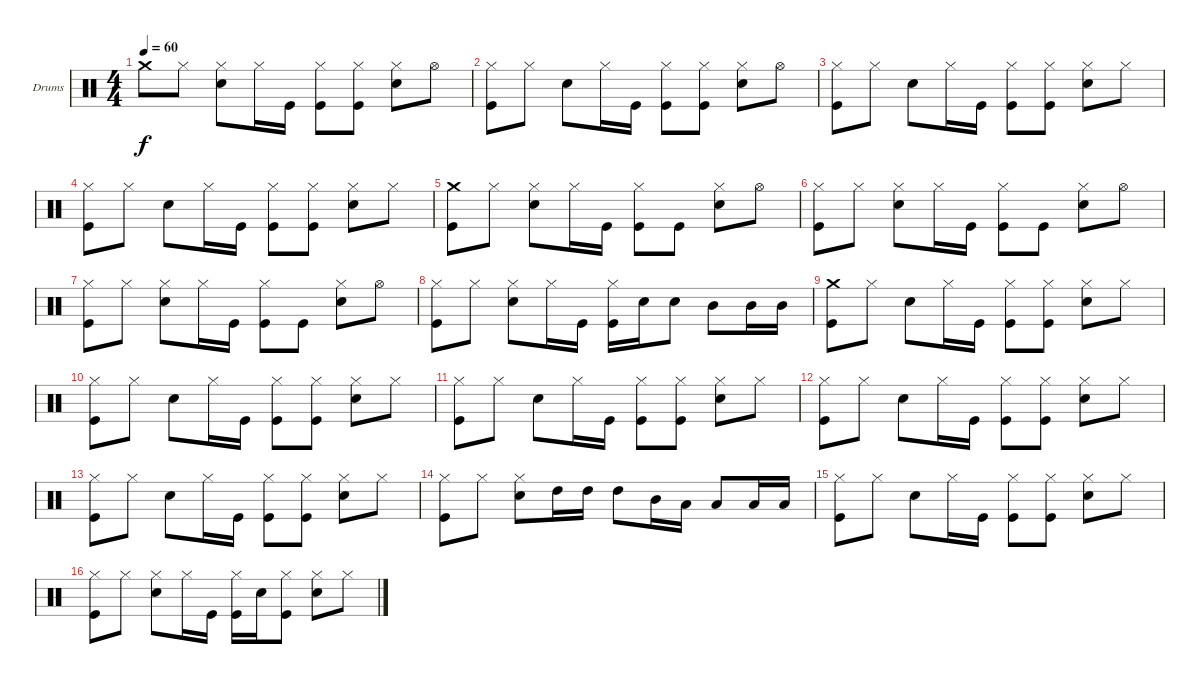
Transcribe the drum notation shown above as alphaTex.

\defaultSystemsLayout 4
\bracketExtendMode groupsimilarinstruments
\firstSystemTrackNameOrientation horizontal
\otherSystemsTrackNameOrientation horizontal
\track ("Drumkit" "Drums") {instrument percussion}
\staff {score}
\articulation defaults
\ts (4 4)
\tempo 60
\clef neutral
\scale
0.333333
\ks c "Crash medium (hit)".8{dy f} "Hi-Hat (closed)".8
("Hi-Hat (closed)" "Snare (hit) 2").8 "Hi-Hat (closed)".16 "Kick (hit)".16 ("Hi-Hat (closed)" "Kick (hit)").8 ("Hi-Hat (closed)" "Kick (hit)").8 ("Hi-Hat (closed)" "Snare (hit) 2").8 "Hi-Hat (open)".8 |
\scale
0.333333 ("Hi-Hat (closed)" "Kick (hit)").8 "Hi-Hat (closed)".8 "Snare (hit) 2".8 "Hi-Hat (closed)".16 "Kick (hit)".16 ("Hi-Hat (closed)" "Kick (hit)").8 ("Hi-Hat (closed)" "Kick (hit)").8 ("Hi-Hat (closed)" "Snare (hit) 2").8 "Hi-Hat (open)".8 |
\scale
0.333333 ("Hi-Hat (closed)" "Kick (hit)").8 "Hi-Hat (closed)".8 "Snare (hit) 2".8 "Hi-Hat (closed)".16 "Kick (hit)".16 ("Hi-Hat (closed)" "Kick (hit)").8 ("Hi-Hat (closed)" "Kick (hit)").8 ("Hi-Hat (closed)" "Snare (hit) 2").8 "Hi-Hat (closed)".8 |
\scale
0.333333 ("Hi-Hat (closed)" "Kick (hit)").8 "Hi-Hat (closed)".8 "Snare (hit) 2".8 "Hi-Hat (closed)".16 "Kick (hit)".16 ("Hi-Hat (closed)" "Kick (hit)").8 ("Hi-Hat (closed)" "Kick (hit)").8 ("Hi-Hat (closed)" "Snare (hit) 2").8 "Hi-Hat (closed)".8 |
\scale
0.333333 ("Kick (hit)" "Crash medium (hit)").8 "Hi-Hat (closed)".8 ("Hi-Hat (closed)" "Snare (hit) 2").8 "Hi-Hat (closed)".16 "Kick (hit)".16 ("Hi-Hat (closed)" "Kick (hit)").8 "Kick (hit)".8 ("Hi-Hat (closed)" "Snare (hit) 2").8 "Hi-Hat (open)".8 |
\scale
0.333333 ("Hi-Hat (closed)" "Kick (hit)").8 "Hi-Hat (closed)".8 ("Hi-Hat (closed)" "Snare (hit) 2").8 "Hi-Hat (closed)".16 "Kick (hit)".16 ("Hi-Hat (closed)" "Kick (hit)").8 "Kick (hit)".8 ("Hi-Hat (closed)" "Snare (hit) 2").8 "Hi-Hat (open)".8 |
\scale
0.333333 ("Hi-Hat (closed)" "Kick (hit)").8 "Hi-Hat (closed)".8 ("Hi-Hat (closed)" "Snare (hit) 2").8 "Hi-Hat (closed)".16 "Kick (hit)".16 ("Hi-Hat (closed)" "Kick (hit)").8 "Kick (hit)".8 ("Hi-Hat (closed)" "Snare (hit) 2").8 "Hi-Hat (open)".8 |
\scale
0.333333 ("Hi-Hat (closed)" "Kick (hit)").8 "Hi-Hat (closed)".8 ("Hi-Hat (closed)" "Snare (hit) 2").8 "Hi-Hat (closed)".16 "Kick (hit)".16 ("Hi-Hat (closed)" "Kick (hit)").16 "Snare (hit) 2".16 "Snare (hit) 2".8 "Mid Tom (hit)".8 "Mid Tom (hit)".16 "Mid Tom (hit)".16 |
\scale
0.333333 ("Kick (hit)" "Crash medium (hit)").8 "Hi-Hat (closed)".8 "Snare (hit) 2".8 "Hi-Hat (closed)".16 "Kick (hit)".16 ("Hi-Hat (closed)" "Kick (hit)").8 ("Hi-Hat (closed)" "Kick (hit)").8 ("Hi-Hat (closed)" "Snare (hit) 2").8 "Hi-Hat (closed)".8 |
\scale
0.333333 ("Hi-Hat (closed)" "Kick (hit)").8 "Hi-Hat (closed)".8 "Snare (hit) 2".8 "Hi-Hat (closed)".16 "Kick (hit)".16 ("Hi-Hat (closed)" "Kick (hit)").8 ("Hi-Hat (closed)" "Kick (hit)").8 ("Hi-Hat (closed)" "Snare (hit) 2").8 "Hi-Hat (closed)".8 |
\scale
0.333333 ("Hi-Hat (closed)" "Kick (hit)").8 "Hi-Hat (closed)".8 "Snare (hit) 2".8 "Hi-Hat (closed)".16 "Kick (hit)".16 ("Hi-Hat (closed)" "Kick (hit)").8 ("Hi-Hat (closed)" "Kick (hit)").8 ("Hi-Hat (closed)" "Snare (hit) 2").8 "Hi-Hat (closed)".8 |
\scale
0.333333 ("Hi-Hat (closed)" "Kick (hit)").8 "Hi-Hat (closed)".8 "Snare (hit) 2".8 "Hi-Hat (closed)".16 "Kick (hit)".16 ("Hi-Hat (closed)" "Kick (hit)").8 ("Hi-Hat (closed)" "Kick (hit)").8 ("Hi-Hat (closed)" "Snare (hit) 2").8 "Hi-Hat (closed)".8 |
\scale
0.333333 ("Hi-Hat (closed)" "Kick (hit)").8 "Hi-Hat (closed)".8 "Snare (hit) 2".8 "Hi-Hat (closed)".16 "Kick (hit)".16 ("Hi-Hat (closed)" "Kick (hit)").8 ("Hi-Hat (closed)" "Kick (hit)").8 ("Hi-Hat (closed)" "Snare (hit) 2").8 "Hi-Hat (closed)".8 |
\scale
0.333333 ("Hi-Hat (closed)" "Kick (hit)").8 "Hi-Hat (closed)".8 ("Hi-Hat (closed)" "Snare (hit) 2").8 "High Tom (hit)".16 "High Tom (hit)".16 "High Tom (hit)".8 "Mid Tom (hit)".16 "Low Tom (hit)".16 "Low Tom (hit)".8 "Low Tom (hit)".16 "Low Tom (hit)".16 |
\scale
0.333333 ("Hi-Hat (closed)" "Kick (hit)").8 "Hi-Hat (closed)".8 "Snare (hit) 2".8 "Hi-Hat (closed)".16 "Kick (hit)".16 ("Hi-Hat (closed)" "Kick (hit)").8 ("Hi-Hat (closed)" "Kick (hit)").8 ("Hi-Hat (closed)" "Snare (hit) 2").8 "Hi-Hat (closed)".8 |
\scale
0.333333 ("Hi-Hat (closed)" "Kick (hit)").8 "Hi-Hat (closed)".8 ("Hi-Hat (closed)" "Snare (hit) 2").8 "Hi-Hat (closed)".16 "Kick (hit)".16 ("Hi-Hat (closed)" "Kick (hit)").16 "Snare (hit) 2".16 ("Hi-Hat (closed)" "Kick (hit)").8 ("Hi-Hat (closed)" "Snare (hit) 2").8 "Hi-Hat (closed)".8
